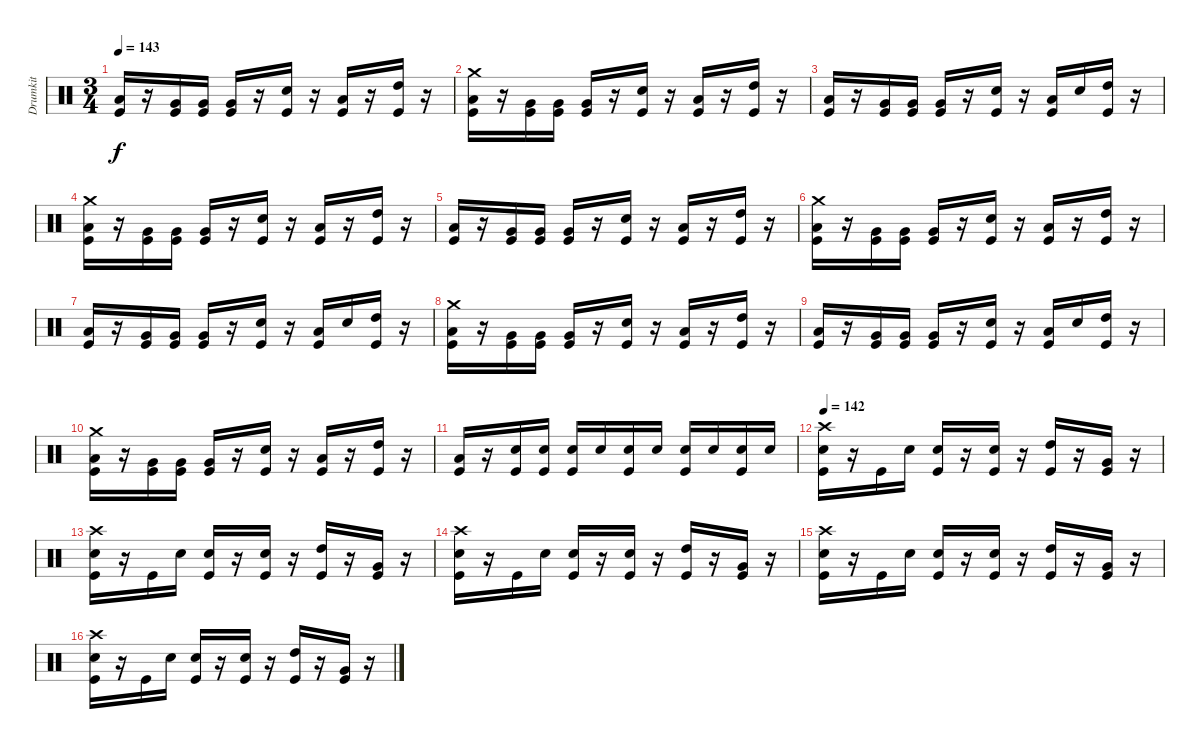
\track ("Drumkit" "Drumkit") {instrument percussion}
\staff {score}
\articulation defaults
\ts (3 4)
\tempo 143
\clef neutral
\ks c
("Low Tom (hit)" "Kick (hit)").16{dy f} r.16 ("Very Low Tom (hit)" "Kick (hit)").16 ("Very Low Tom (hit)" "Kick (hit)").16 ("Very Low Tom (hit)" "Kick (hit)").16 r.16 ("Snare (hit) 2" "Kick (hit)").16 r.16 ("Low Tom (hit)" "Kick (hit)").16 r.16 ("High Tom (hit)" "Kick (hit)").16 r.16 |
("Crash medium (hit)" "Low Tom (hit)" "Kick (hit)").16 r.16 ("Very Low Tom (hit)" "Kick (hit)").16 ("Very Low Tom (hit)" "Kick (hit)").16 ("Very Low Tom (hit)" "Kick (hit)").16 r.16 ("Snare (hit) 2" "Kick (hit)").16 r.16 ("Low Tom (hit)" "Kick (hit)").16 r.16 ("High Tom (hit)" "Kick (hit)").16 r.16 |
("Low Tom (hit)" "Kick (hit)").16 r.16 ("Very Low Tom (hit)" "Kick (hit)").16 ("Very Low Tom (hit)" "Kick (hit)").16 ("Very Low Tom (hit)" "Kick (hit)").16 r.16 ("Snare (hit) 2" "Kick (hit)").16 r.16 ("Low Tom (hit)" "Kick (hit)").16 "Snare (hit) 2".16 ("High Tom (hit)" "Kick (hit)").16 r.16 |
("Crash medium (hit)" "Low Tom (hit)" "Kick (hit)").16 r.16 ("Very Low Tom (hit)" "Kick (hit)").16 ("Very Low Tom (hit)" "Kick (hit)").16 ("Very Low Tom (hit)" "Kick (hit)").16 r.16 ("Snare (hit) 2" "Kick (hit)").16 r.16 ("Low Tom (hit)" "Kick (hit)").16 r.16 ("High Tom (hit)" "Kick (hit)").16 r.16 |
("Low Tom (hit)" "Kick (hit)").16 r.16 ("Very Low Tom (hit)" "Kick (hit)").16 ("Very Low Tom (hit)" "Kick (hit)").16 ("Very Low Tom (hit)" "Kick (hit)").16 r.16 ("Snare (hit) 2" "Kick (hit)").16 r.16 ("Low Tom (hit)" "Kick (hit)").16 r.16 ("High Tom (hit)" "Kick (hit)").16 r.16 |
("Crash medium (hit)" "Low Tom (hit)" "Kick (hit)").16 r.16 ("Very Low Tom (hit)" "Kick (hit)").16 ("Very Low Tom (hit)" "Kick (hit)").16 ("Very Low Tom (hit)" "Kick (hit)").16 r.16 ("Snare (hit) 2" "Kick (hit)").16 r.16 ("Low Tom (hit)" "Kick (hit)").16 r.16 ("High Tom (hit)" "Kick (hit)").16 r.16 |
("Low Tom (hit)" "Kick (hit)").16 r.16 ("Very Low Tom (hit)" "Kick (hit)").16 ("Very Low Tom (hit)" "Kick (hit)").16 ("Very Low Tom (hit)" "Kick (hit)").16 r.16 ("Snare (hit) 2" "Kick (hit)").16 r.16 ("Low Tom (hit)" "Kick (hit)").16 "Snare (hit) 2".16 ("High Tom (hit)" "Kick (hit)").16 r.16 |
("Crash medium (hit)" "Low Tom (hit)" "Kick (hit)").16 r.16 ("Very Low Tom (hit)" "Kick (hit)").16 ("Very Low Tom (hit)" "Kick (hit)").16 ("Very Low Tom (hit)" "Kick (hit)").16 r.16 ("Snare (hit) 2" "Kick (hit)").16 r.16 ("Low Tom (hit)" "Kick (hit)").16 r.16 ("High Tom (hit)" "Kick (hit)").16 r.16 |
("Low Tom (hit)" "Kick (hit)").16 r.16 ("Very Low Tom (hit)" "Kick (hit)").16 ("Very Low Tom (hit)" "Kick (hit)").16 ("Very Low Tom (hit)" "Kick (hit)").16 r.16 ("Snare (hit) 2" "Kick (hit)").16 r.16 ("Low Tom (hit)" "Kick (hit)").16 "Snare (hit) 2".16 ("High Tom (hit)" "Kick (hit)").16 r.16 |
("Crash medium (hit)" "Low Tom (hit)" "Kick (hit)").16 r.16 ("Very Low Tom (hit)" "Kick (hit)").16 ("Very Low Tom (hit)" "Kick (hit)").16 ("Very Low Tom (hit)" "Kick (hit)").16 r.16 ("Snare (hit) 2" "Kick (hit)").16 r.16 ("Low Tom (hit)" "Kick (hit)").16 r.16 ("High Tom (hit)" "Kick (hit)").16 r.16 |
("Low Tom (hit)" "Kick (hit)").16 r.16 ("Snare (hit) 2" "Kick (hit)").16 ("Snare (hit) 2" "Kick (hit)").16 ("Snare (hit) 2" "Kick (hit)").16 "Snare (hit) 2".16 ("Snare (hit) 2" "Kick (hit)").16 "Snare (hit) 2".16 ("Snare (hit) 2" "Kick (hit)").16 "Snare (hit) 2".16 ("Snare (hit) 2" "Kick (hit)").16 "Snare (hit) 2".16 |
\tempo 142
("Crash high (hit)" "Snare (hit) 2" "Kick (hit)").16 r.16 "Kick (hit)".16 "Snare (hit) 2".16 ("Snare (hit) 2" "Kick (hit)").16 r.16 ("Snare (hit) 2" "Kick (hit)").16 r.16 ("High Tom (hit)" "Kick (hit)").16 r.16 ("Very Low Tom (hit)" "Kick (hit)").16 r.16 |
("Crash high (hit)" "Snare (hit) 2" "Kick (hit)").16 r.16 "Kick (hit)".16 "Snare (hit) 2".16 ("Snare (hit) 2" "Kick (hit)").16 r.16 ("Snare (hit) 2" "Kick (hit)").16 r.16 ("High Tom (hit)" "Kick (hit)").16 r.16 ("Very Low Tom (hit)" "Kick (hit)").16 r.16 |
("Crash high (hit)" "Snare (hit) 2" "Kick (hit)").16 r.16 "Kick (hit)".16 "Snare (hit) 2".16 ("Snare (hit) 2" "Kick (hit)").16 r.16 ("Snare (hit) 2" "Kick (hit)").16 r.16 ("High Tom (hit)" "Kick (hit)").16 r.16 ("Very Low Tom (hit)" "Kick (hit)").16 r.16 |
("Crash high (hit)" "Snare (hit) 2" "Kick (hit)").16 r.16 "Kick (hit)".16 "Snare (hit) 2".16 ("Snare (hit) 2" "Kick (hit)").16 r.16 ("Snare (hit) 2" "Kick (hit)").16 r.16 ("High Tom (hit)" "Kick (hit)").16 r.16 ("Very Low Tom (hit)" "Kick (hit)").16 r.16 |
("Crash high (hit)" "Snare (hit) 2" "Kick (hit)").16 r.16 "Kick (hit)".16 "Snare (hit) 2".16 ("Snare (hit) 2" "Kick (hit)").16 r.16 ("Snare (hit) 2" "Kick (hit)").16 r.16 ("High Tom (hit)" "Kick (hit)").16 r.16 ("Very Low Tom (hit)" "Kick (hit)").16 r.16
